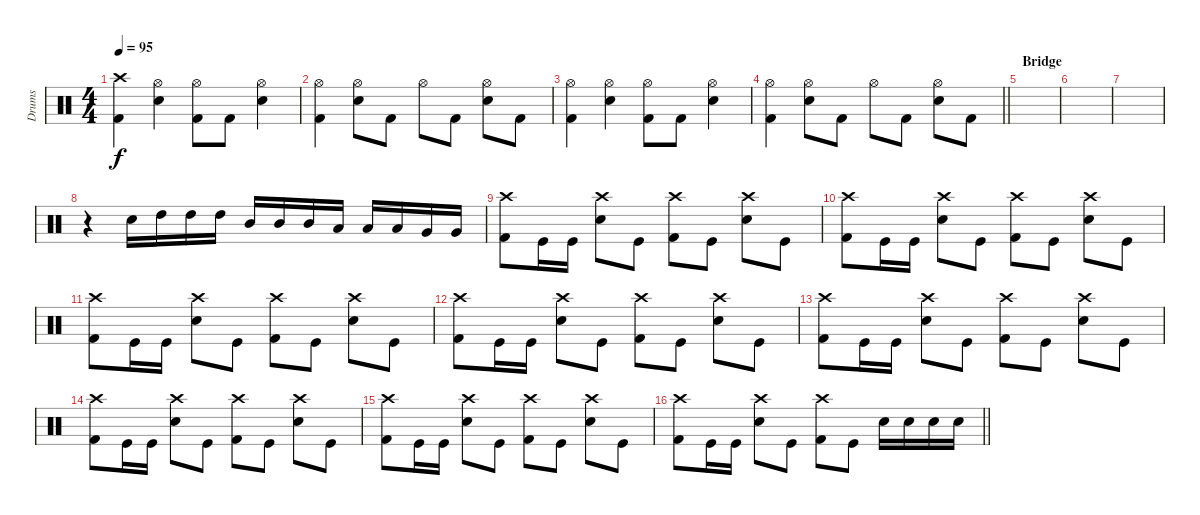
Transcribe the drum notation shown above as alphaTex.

\track ("Drums" "Drums") {instrument percussion}
\staff {score}
\articulation defaults
\ts (4 4)
\tempo 95
\clef neutral
\ks c
("Crash high (hit)" "Kick (hit) 2").4{dy f} ("Hi-Hat (open)" "Electric Snare (hit)").4 ("Hi-Hat (open)" "Kick (hit) 2").8 "Kick (hit) 2".8 ("Hi-Hat (open)" "Electric Snare (hit)").4 |
("Hi-Hat (open)" "Kick (hit) 2").4 ("Hi-Hat (open)" "Electric Snare (hit)").8 "Kick (hit) 2".8 "Hi-Hat (open)".8 "Kick (hit) 2".8 ("Hi-Hat (open)" "Electric Snare (hit)").8 "Kick (hit) 2".8 |
("Hi-Hat (open)" "Kick (hit) 2").4 ("Hi-Hat (open)" "Electric Snare (hit)").4 ("Hi-Hat (open)" "Kick (hit) 2").8 "Kick (hit) 2".8 ("Hi-Hat (open)" "Electric Snare (hit)").4 |
\barLineRight lightlight
("Hi-Hat (open)" "Kick (hit) 2").4 ("Hi-Hat (open)" "Electric Snare (hit)").8 "Kick (hit) 2".8 "Hi-Hat (open)".8 "Kick (hit) 2".8 ("Hi-Hat (open)" "Electric Snare (hit)").8 "Kick (hit) 2".8 |
\section ("" "Bridge")
|
|
|
r.4 "Electric Snare (hit)".16 "High Tom (hit)".16 "High Tom (hit)".16 "High Tom (hit)".16 "Mid Tom (hit)".16 "Mid Tom (hit)".16 "Mid Tom (hit)".16 "Low Tom (hit)".16 "Low Tom (hit)".16 "Low Tom (hit)".16 "Very Low Tom (hit)".16 "Very Low Tom (hit)".16 |
("Crash high (hit)" "Kick (hit) 2").8 "Kick (hit)".16 "Kick (hit)".16 ("Crash high (hit)" "Electric Snare (hit)").8 "Kick (hit)".8 ("Crash high (hit)" "Kick (hit) 2").8 "Kick (hit)".8 ("Crash high (hit)" "Electric Snare (hit)").8 "Kick (hit)".8 |
("Crash high (hit)" "Kick (hit) 2").8 "Kick (hit)".16 "Kick (hit)".16 ("Crash high (hit)" "Electric Snare (hit)").8 "Kick (hit)".8 ("Crash high (hit)" "Kick (hit) 2").8 "Kick (hit)".8 ("Crash high (hit)" "Electric Snare (hit)").8 "Kick (hit)".8 |
("Crash high (hit)" "Kick (hit) 2").8 "Kick (hit)".16 "Kick (hit)".16 ("Crash high (hit)" "Electric Snare (hit)").8 "Kick (hit)".8 ("Crash high (hit)" "Kick (hit) 2").8 "Kick (hit)".8 ("Crash high (hit)" "Electric Snare (hit)").8 "Kick (hit)".8 |
("Crash high (hit)" "Kick (hit) 2").8 "Kick (hit)".16 "Kick (hit)".16 ("Crash high (hit)" "Electric Snare (hit)").8 "Kick (hit)".8 ("Crash high (hit)" "Kick (hit) 2").8 "Kick (hit)".8 ("Crash high (hit)" "Electric Snare (hit)").8 "Kick (hit)".8 |
("Crash high (hit)" "Kick (hit) 2").8 "Kick (hit)".16 "Kick (hit)".16 ("Crash high (hit)" "Electric Snare (hit)").8 "Kick (hit)".8 ("Crash high (hit)" "Kick (hit) 2").8 "Kick (hit)".8 ("Crash high (hit)" "Electric Snare (hit)").8 "Kick (hit)".8 |
("Crash high (hit)" "Kick (hit) 2").8 "Kick (hit)".16 "Kick (hit)".16 ("Crash high (hit)" "Electric Snare (hit)").8 "Kick (hit)".8 ("Crash high (hit)" "Kick (hit) 2").8 "Kick (hit)".8 ("Crash high (hit)" "Electric Snare (hit)").8 "Kick (hit)".8 |
("Crash high (hit)" "Kick (hit) 2").8 "Kick (hit)".16 "Kick (hit)".16 ("Crash high (hit)" "Electric Snare (hit)").8 "Kick (hit)".8 ("Crash high (hit)" "Kick (hit) 2").8 "Kick (hit)".8 ("Crash high (hit)" "Electric Snare (hit)").8 "Kick (hit)".8 |
\barLineRight lightlight
("Crash high (hit)" "Kick (hit) 2").8 "Kick (hit)".16 "Kick (hit)".16 ("Crash high (hit)" "Electric Snare (hit)").8 "Kick (hit)".8 ("Crash high (hit)" "Kick (hit) 2").8 "Kick (hit)".8 "Electric Snare (hit)".16 "Electric Snare (hit)".16 "Electric Snare (hit)".16 "Electric Snare (hit)".16
